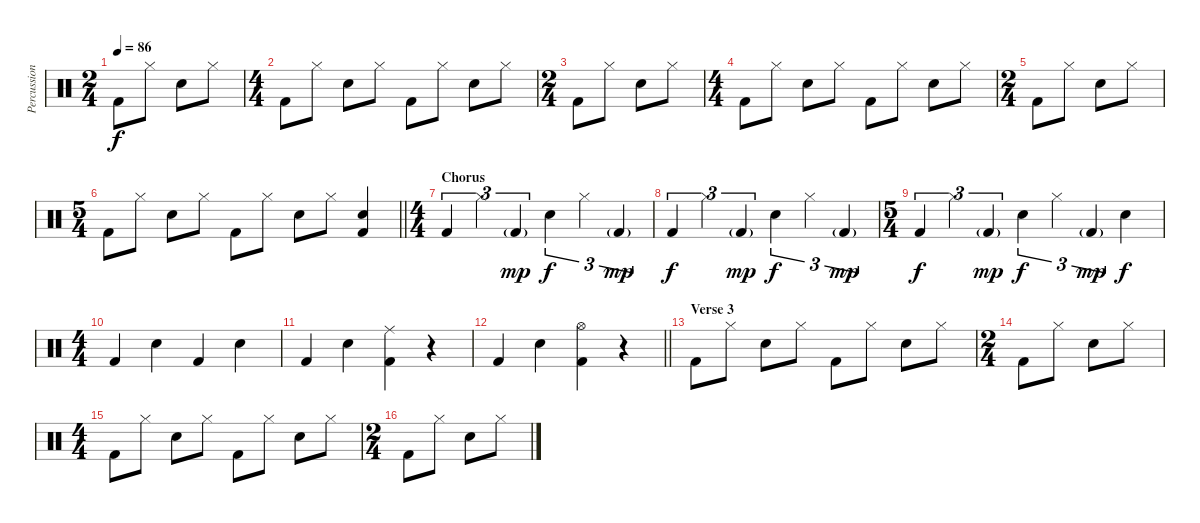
\track ("Percussion" "Percussion") {instrument percussion}
\staff {score}
\articulation defaults
\ts (2 4)
\tempo 86
\clef neutral
\ks c "Kick (hit) 2".8{dy f} "Hi-Hat (closed)".8 "Snare (hit) 2".8 "Hi-Hat (closed)".8
|
\ts (4 4)
"Kick (hit) 2".8 "Hi-Hat (closed)".8 "Snare (hit) 2".8 "Hi-Hat (closed)".8 "Kick (hit) 2".8 "Hi-Hat (closed)".8 "Snare (hit) 2".8 "Hi-Hat (closed)".8 |
\ts (2 4)
"Kick (hit) 2".8 "Hi-Hat (closed)".8 "Snare (hit) 2".8 "Hi-Hat (closed)".8 |
\ts (4 4)
"Kick (hit) 2".8 "Hi-Hat (closed)".8 "Snare (hit) 2".8 "Hi-Hat (closed)".8 "Kick (hit) 2".8 "Hi-Hat (closed)".8 "Snare (hit) 2".8 "Hi-Hat (closed)".8 |
\ts (2 4)
"Kick (hit) 2".8 "Hi-Hat (closed)".8 "Snare (hit) 2".8 "Hi-Hat (closed)".8 |
\ts (5 4)
\barLineRight lightlight "Kick (hit) 2".8 "Hi-Hat (closed)".8 "Snare (hit) 2".8 "Hi-Hat (closed)".8 "Kick (hit) 2".8 "Hi-Hat (closed)".8 "Snare (hit) 2".8 "Hi-Hat (closed)".8
("Snare (hit) 2" "Kick (hit) 2").4 |
\ts (4 4)
\section ("" "Chorus")
"Kick (hit) 2".4{tu (3 2)} "Hi-Hat (closed)".4{tu (3 2)} "Kick (hit) 2"{g}.4{tu (3 2) dy mp} "Snare (hit) 2".4{tu (3 2) dy f} "Hi-Hat (closed)".4{tu (3 2)} "Kick (hit) 2"{g}.4{tu (3 2) dy mp} |
"Kick (hit) 2".4{tu (3 2) dy f} "Hi-Hat (closed)".4{tu (3 2)} "Kick (hit) 2"{g}.4{tu (3 2) dy mp} "Snare (hit) 2".4{tu (3 2) dy f} "Hi-Hat (closed)".4{tu (3 2)} "Kick (hit) 2"{g}.4{tu (3 2) dy mp} |
\ts (5 4)
"Kick (hit) 2".4{tu (3 2) dy f} "Hi-Hat (closed)".4{tu (3 2)} "Kick (hit) 2"{g}.4{tu (3 2) dy mp} "Snare (hit) 2".4{tu (3 2) dy f} "Hi-Hat (closed)".4{tu (3 2)} "Kick (hit) 2"{g}.4{tu (3 2) dy mp} "Snare (hit) 2".4{dy f} |
\ts (4 4)
"Kick (hit) 2".4 "Snare (hit) 2".4 "Kick (hit) 2".4 "Snare (hit) 2".4 |
"Kick (hit) 2".4 "Snare (hit) 2".4 ("Ride (middle)" "Kick (hit) 2").4 r.4 |
\barLineRight lightlight "Kick (hit) 2".4 "Snare (hit) 2".4
("Hi-Hat (open)" "Kick (hit) 2").4 r.4 |
\section ("" "Verse 3")
"Kick (hit) 2".8 "Hi-Hat (closed)".8 "Snare (hit) 2".8 "Hi-Hat (closed)".8 "Kick (hit) 2".8 "Hi-Hat (closed)".8 "Snare (hit) 2".8 "Hi-Hat (closed)".8 |
\ts (2 4)
"Kick (hit) 2".8 "Hi-Hat (closed)".8 "Snare (hit) 2".8 "Hi-Hat (closed)".8 |
\ts (4 4)
"Kick (hit) 2".8 "Hi-Hat (closed)".8 "Snare (hit) 2".8 "Hi-Hat (closed)".8 "Kick (hit) 2".8 "Hi-Hat (closed)".8 "Snare (hit) 2".8 "Hi-Hat (closed)".8 |
\ts (2 4)
"Kick (hit) 2".8 "Hi-Hat (closed)".8 "Snare (hit) 2".8 "Hi-Hat (closed)".8
